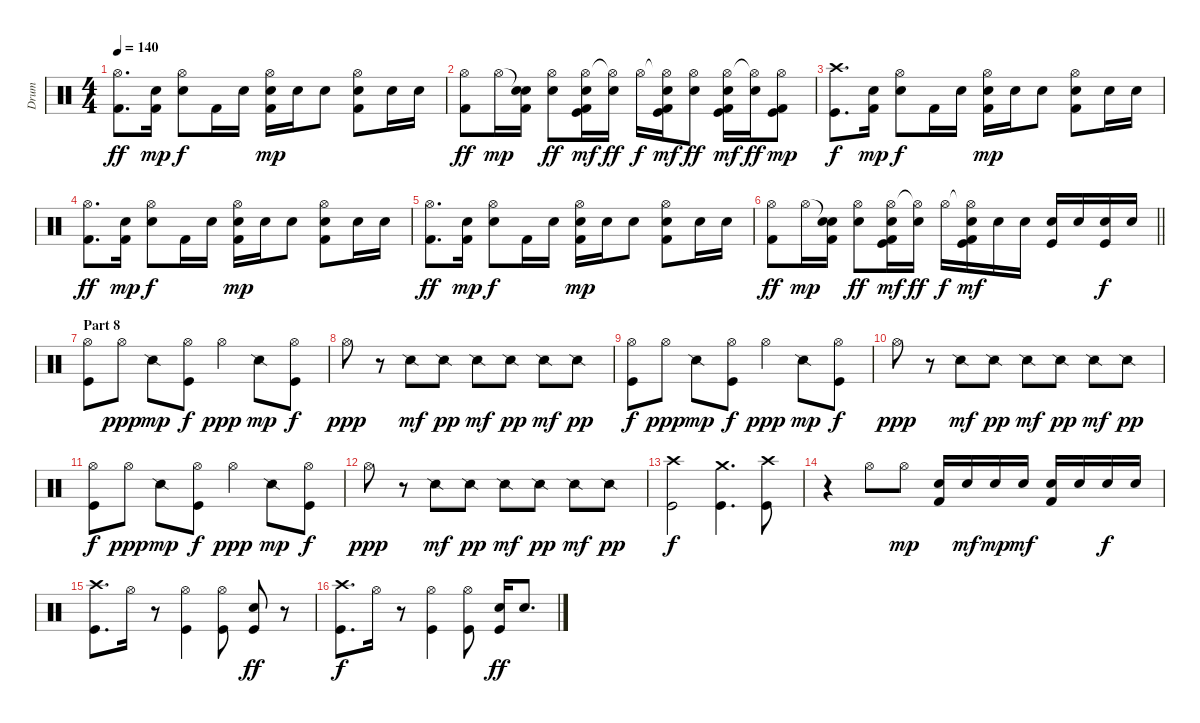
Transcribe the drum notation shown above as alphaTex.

\track ("Drum" "Drum") {instrument percussion}
\staff {score}
\articulation defaults
\ts (4 4)
\tempo 140
\clef neutral
\ks c
("Hi-Hat (open)" "Kick (hit) 2").8{d dy ff} ("Electric Snare (hit)" "Kick (hit) 2").16{dy mp} ("Hi-Hat (open)" "Electric Snare (hit)").8{dy f} "Kick (hit) 2".16 "Electric Snare (hit)".16 ("Hi-Hat (open)" "Electric Snare (hit)" "Kick (hit) 2").16{dy mp} "Electric Snare (hit)".16 "Electric Snare (hit)".8 ("Hi-Hat (open)" "Electric Snare (hit)" "Kick (hit) 2").8 "Electric Snare (hit)".16 "Electric Snare (hit)".16 |
("Hi-Hat (open)" "Kick (hit) 2").8{dy ff} "Hi-Hat (open)".16{dy mp} ("Snare (hit)"{t} "Electric Snare (hit)" "Kick (hit) 2").16 ("Hi-Hat (open)" "Electric Snare (hit)").8{dy ff} ("Hi-Hat (open)" "Electric Snare (hit)" "Kick (hit)" "Kick (hit) 2").16{dy mf} ("Hi-Hat (open)"{t} "Electric Snare (hit)").16{dy ff} "Hi-Hat (open)".16{dy f} ("Hi-Hat (open)"{t} "Electric Snare (hit)" "Kick (hit)" "Kick (hit) 2").16{dy mf} ("Hi-Hat (open)" "Electric Snare (hit)").8{dy ff} ("Hi-Hat (open)" "Electric Snare (hit)" "Kick (hit)" "Kick (hit) 2").16{dy mf} ("Hi-Hat (open)"{t} "Electric Snare (hit)").16{dy ff} ("Hi-Hat (open)" "Kick (hit)" "Kick (hit) 2").8{dy mp} |
("Crash high (hit)" "Kick (hit)").8{d dy f} ("Electric Snare (hit)" "Kick (hit) 2").16{dy mp} ("Hi-Hat (open)" "Electric Snare (hit)").8{dy f} "Kick (hit) 2".16 "Electric Snare (hit)".16 ("Hi-Hat (open)" "Electric Snare (hit)" "Kick (hit) 2").16{dy mp} "Electric Snare (hit)".16 "Electric Snare (hit)".8 ("Hi-Hat (open)" "Electric Snare (hit)" "Kick (hit) 2").8 "Electric Snare (hit)".16 "Electric Snare (hit)".16 |
("Hi-Hat (open)" "Kick (hit) 2").8{d dy ff} ("Electric Snare (hit)" "Kick (hit) 2").16{dy mp} ("Hi-Hat (open)" "Electric Snare (hit)").8{dy f} "Kick (hit) 2".16 "Electric Snare (hit)".16 ("Hi-Hat (open)" "Electric Snare (hit)" "Kick (hit) 2").16{dy mp} "Electric Snare (hit)".16 "Electric Snare (hit)".8 ("Hi-Hat (open)" "Electric Snare (hit)" "Kick (hit) 2").8 "Electric Snare (hit)".16 "Electric Snare (hit)".16 |
("Hi-Hat (open)" "Kick (hit) 2").8{d dy ff} ("Electric Snare (hit)" "Kick (hit) 2").16{dy mp} ("Hi-Hat (open)" "Electric Snare (hit)").8{dy f} "Kick (hit) 2".16 "Electric Snare (hit)".16 ("Hi-Hat (open)" "Electric Snare (hit)" "Kick (hit) 2").16{dy mp} "Electric Snare (hit)".16 "Electric Snare (hit)".8 ("Hi-Hat (open)" "Electric Snare (hit)" "Kick (hit) 2").8 "Electric Snare (hit)".16 "Electric Snare (hit)".16 |
\barLineRight lightlight
("Hi-Hat (open)" "Kick (hit) 2").8{dy ff} "Hi-Hat (open)".16{dy mp} ("Snare (hit)"{t} "Electric Snare (hit)" "Kick (hit) 2").16 ("Hi-Hat (open)" "Electric Snare (hit)").8{dy ff} ("Hi-Hat (open)" "Electric Snare (hit)" "Kick (hit)" "Kick (hit) 2").16{dy mf} ("Hi-Hat (open)"{t} "Electric Snare (hit)").16{dy ff} "Hi-Hat (open)".16{dy f} ("Hi-Hat (open)"{t} "Electric Snare (hit)" "Kick (hit)" "Kick (hit) 2").16{dy mf} "Electric Snare (hit)".16 "Electric Snare (hit)".16 ("Electric Snare (hit)" "Kick (hit)").16 "Electric Snare (hit)".16 ("Electric Snare (hit)" "Kick (hit)").16{dy f} "Electric Snare (hit)".16 |
\section ("" "Part 8")
("Hi-Hat (open)" "Kick (hit)").8 "Hi-Hat (open)".8{dy ppp} "Snare (side stick) 2".8{dy mp} ("Hi-Hat (open)" "Kick (hit)").8{dy f} "Hi-Hat (open)".4{dy ppp} "Snare (side stick) 2".8{dy mp} ("Hi-Hat (open)" "Kick (hit)").8{dy f} |
"Hi-Hat (open)".8{dy ppp} r.8 "Snare (side stick) 2".8{dy mf} "Snare (side stick) 2".8{dy pp} "Snare (side stick) 2".8{dy mf} "Snare (side stick) 2".8{dy pp} "Snare (side stick) 2".8{dy mf} "Snare (side stick) 2".8{dy pp} |
("Hi-Hat (open)" "Kick (hit)").8{dy f} "Hi-Hat (open)".8{dy ppp} "Snare (side stick) 2".8{dy mp} ("Hi-Hat (open)" "Kick (hit)").8{dy f} "Hi-Hat (open)".4{dy ppp} "Snare (side stick) 2".8{dy mp} ("Hi-Hat (open)" "Kick (hit)").8{dy f} |
"Hi-Hat (open)".8{dy ppp} r.8 "Snare (side stick) 2".8{dy mf} "Snare (side stick) 2".8{dy pp} "Snare (side stick) 2".8{dy mf} "Snare (side stick) 2".8{dy pp} "Snare (side stick) 2".8{dy mf} "Snare (side stick) 2".8{dy pp} |
("Hi-Hat (open)" "Kick (hit)").8{dy f} "Hi-Hat (open)".8{dy ppp} "Snare (side stick) 2".8{dy mp} ("Hi-Hat (open)" "Kick (hit)").8{dy f} "Hi-Hat (open)".4{dy ppp} "Snare (side stick) 2".8{dy mp} ("Hi-Hat (open)" "Kick (hit)").8{dy f} |
"Hi-Hat (open)".8{dy ppp} r.8 "Snare (side stick) 2".8{dy mf} "Snare (side stick) 2".8{dy pp} "Snare (side stick) 2".8{dy mf} "Snare (side stick) 2".8{dy pp} "Snare (side stick) 2".8{dy mf} "Snare (side stick) 2".8{dy pp} |
("Crash high (hit)" "Kick (hit)").2{dy f} ("Crash medium (hit)" "Kick (hit)").4{d} ("Crash high (hit)" "Kick (hit)").8 |
r.4 "Hi-Hat (open)".8 "Hi-Hat (open)".8{dy mp} ("Electric Snare (hit)" "Kick (hit) 2").16 "Electric Snare (hit)".16{dy mf} "Electric Snare (hit)".16{dy mp} "Electric Snare (hit)".16{dy mf} ("Electric Snare (hit)" "Kick (hit) 2").16 "Electric Snare (hit)".16 "Electric Snare (hit)".16{dy f} "Electric Snare (hit)".16 |
("Crash high (hit)" "Kick (hit)").8{d} "Hi-Hat (open)".16 r.8 ("Hi-Hat (open)" "Kick (hit)").4 ("Hi-Hat (open)" "Kick (hit)").8 ("Electric Snare (hit)" "Kick (hit)").8{dy ff} r.8 |
("Crash high (hit)" "Kick (hit)").8{d dy f} "Hi-Hat (open)".16 r.8 ("Hi-Hat (open)" "Kick (hit)").4 ("Hi-Hat (open)" "Kick (hit)").8 ("Electric Snare (hit)" "Kick (hit)").16{dy ff} "Electric Snare (hit)".8{d}
